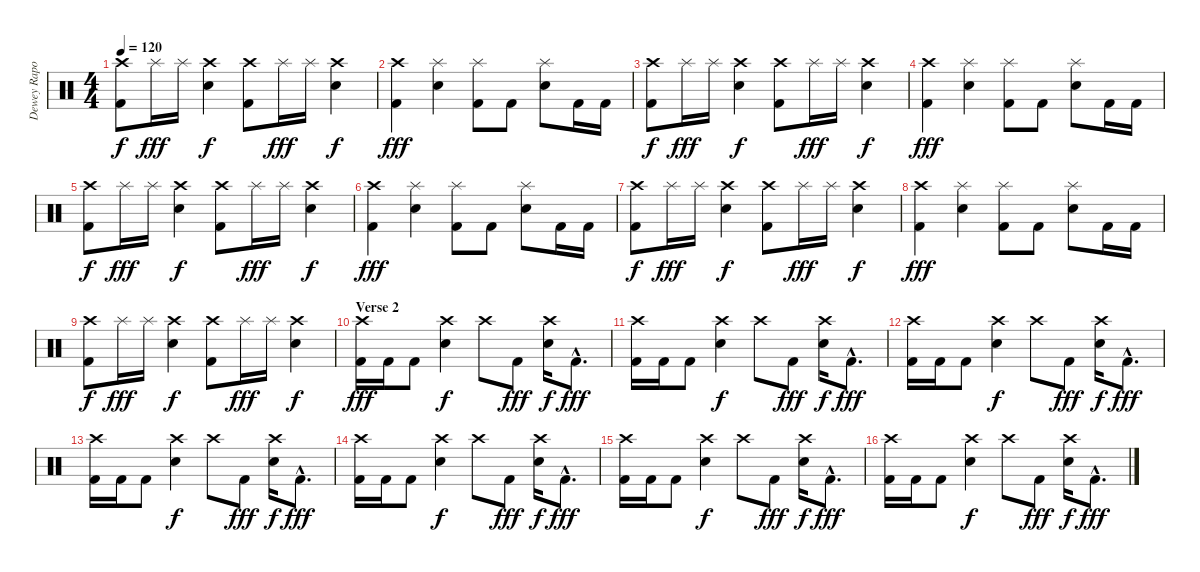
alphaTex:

\track ("Dewey Raposo" "Dewey Rapo") {instrument percussion}
\staff {score}
\articulation defaults
\ts (4 4)
\tempo 120
\clef neutral
\ks c
("Crash high (hit)" "Kick (hit) 2").8{dy f} "Splash (hit)".16{dy fff} "Splash (hit)".16 ("Crash high (hit)" "Electric Snare (hit)").4{dy f} ("Crash high (hit)" "Kick (hit) 2").8 "Splash (hit)".16{dy fff} "Splash (hit)".16 ("Crash high (hit)" "Electric Snare (hit)").4{dy f} |
("Crash high (hit)" "Kick (hit) 2").4{dy fff} ("Splash (hit)" "Electric Snare (hit)").4 ("Splash (hit)" "Kick (hit) 2").8 "Kick (hit) 2".8 ("Splash (hit)" "Electric Snare (hit)").8 "Kick (hit) 2".16 "Kick (hit) 2".16 |
("Crash high (hit)" "Kick (hit) 2").8{dy f} "Splash (hit)".16{dy fff} "Splash (hit)".16 ("Crash high (hit)" "Electric Snare (hit)").4{dy f} ("Crash high (hit)" "Kick (hit) 2").8 "Splash (hit)".16{dy fff} "Splash (hit)".16 ("Crash high (hit)" "Electric Snare (hit)").4{dy f} |
("Crash high (hit)" "Kick (hit) 2").4{dy fff} ("Splash (hit)" "Electric Snare (hit)").4 ("Splash (hit)" "Kick (hit) 2").8 "Kick (hit) 2".8 ("Splash (hit)" "Electric Snare (hit)").8 "Kick (hit) 2".16 "Kick (hit) 2".16 |
("Crash high (hit)" "Kick (hit) 2").8{dy f} "Splash (hit)".16{dy fff} "Splash (hit)".16 ("Crash high (hit)" "Electric Snare (hit)").4{dy f} ("Crash high (hit)" "Kick (hit) 2").8 "Splash (hit)".16{dy fff} "Splash (hit)".16 ("Crash high (hit)" "Electric Snare (hit)").4{dy f} |
("Crash high (hit)" "Kick (hit) 2").4{dy fff} ("Splash (hit)" "Electric Snare (hit)").4 ("Splash (hit)" "Kick (hit) 2").8 "Kick (hit) 2".8 ("Splash (hit)" "Electric Snare (hit)").8 "Kick (hit) 2".16 "Kick (hit) 2".16 |
("Crash high (hit)" "Kick (hit) 2").8{dy f} "Splash (hit)".16{dy fff} "Splash (hit)".16 ("Crash high (hit)" "Electric Snare (hit)").4{dy f} ("Crash high (hit)" "Kick (hit) 2").8 "Splash (hit)".16{dy fff} "Splash (hit)".16 ("Crash high (hit)" "Electric Snare (hit)").4{dy f} |
("Crash high (hit)" "Kick (hit) 2").4{dy fff} ("Splash (hit)" "Electric Snare (hit)").4 ("Splash (hit)" "Kick (hit) 2").8 "Kick (hit) 2".8 ("Splash (hit)" "Electric Snare (hit)").8 "Kick (hit) 2".16 "Kick (hit) 2".16 |
("Crash high (hit)" "Kick (hit) 2").8{dy f} "Splash (hit)".16{dy fff} "Splash (hit)".16 ("Crash high (hit)" "Electric Snare (hit)").4{dy f} ("Crash high (hit)" "Kick (hit) 2").8 "Splash (hit)".16{dy fff} "Splash (hit)".16 ("Crash high (hit)" "Electric Snare (hit)").4{dy f} |
\section ("" "Verse 2")
("Crash high (hit)" "Kick (hit) 2").16{dy fff} "Kick (hit) 2".16 "Kick (hit) 2".8 ("Crash high (hit)" "Electric Snare (hit)").4{dy f} "Crash high (hit)".8 "Kick (hit) 2".8{dy fff} ("Crash high (hit)" "Electric Snare (hit)").16{dy f} "Kick (hit) 2"{hac}.8{d dy fff} |
("Crash high (hit)" "Kick (hit) 2").16 "Kick (hit) 2".16 "Kick (hit) 2".8 ("Crash high (hit)" "Electric Snare (hit)").4{dy f} "Crash high (hit)".8 "Kick (hit) 2".8{dy fff} ("Crash high (hit)" "Electric Snare (hit)").16{dy f} "Kick (hit) 2"{hac}.8{d dy fff} |
("Crash high (hit)" "Kick (hit) 2").16 "Kick (hit) 2".16 "Kick (hit) 2".8 ("Crash high (hit)" "Electric Snare (hit)").4{dy f} "Crash high (hit)".8 "Kick (hit) 2".8{dy fff} ("Crash high (hit)" "Electric Snare (hit)").16{dy f} "Kick (hit) 2"{hac}.8{d dy fff} |
("Crash high (hit)" "Kick (hit) 2").16 "Kick (hit) 2".16 "Kick (hit) 2".8 ("Crash high (hit)" "Electric Snare (hit)").4{dy f} "Crash high (hit)".8 "Kick (hit) 2".8{dy fff} ("Crash high (hit)" "Electric Snare (hit)").16{dy f} "Kick (hit) 2"{hac}.8{d dy fff} |
("Crash high (hit)" "Kick (hit) 2").16 "Kick (hit) 2".16 "Kick (hit) 2".8 ("Crash high (hit)" "Electric Snare (hit)").4{dy f} "Crash high (hit)".8 "Kick (hit) 2".8{dy fff} ("Crash high (hit)" "Electric Snare (hit)").16{dy f} "Kick (hit) 2"{hac}.8{d dy fff} |
("Crash high (hit)" "Kick (hit) 2").16 "Kick (hit) 2".16 "Kick (hit) 2".8 ("Crash high (hit)" "Electric Snare (hit)").4{dy f} "Crash high (hit)".8 "Kick (hit) 2".8{dy fff} ("Crash high (hit)" "Electric Snare (hit)").16{dy f} "Kick (hit) 2"{hac}.8{d dy fff} |
("Crash high (hit)" "Kick (hit) 2").16 "Kick (hit) 2".16 "Kick (hit) 2".8 ("Crash high (hit)" "Electric Snare (hit)").4{dy f} "Crash high (hit)".8 "Kick (hit) 2".8{dy fff} ("Crash high (hit)" "Electric Snare (hit)").16{dy f} "Kick (hit) 2"{hac}.8{d dy fff}
